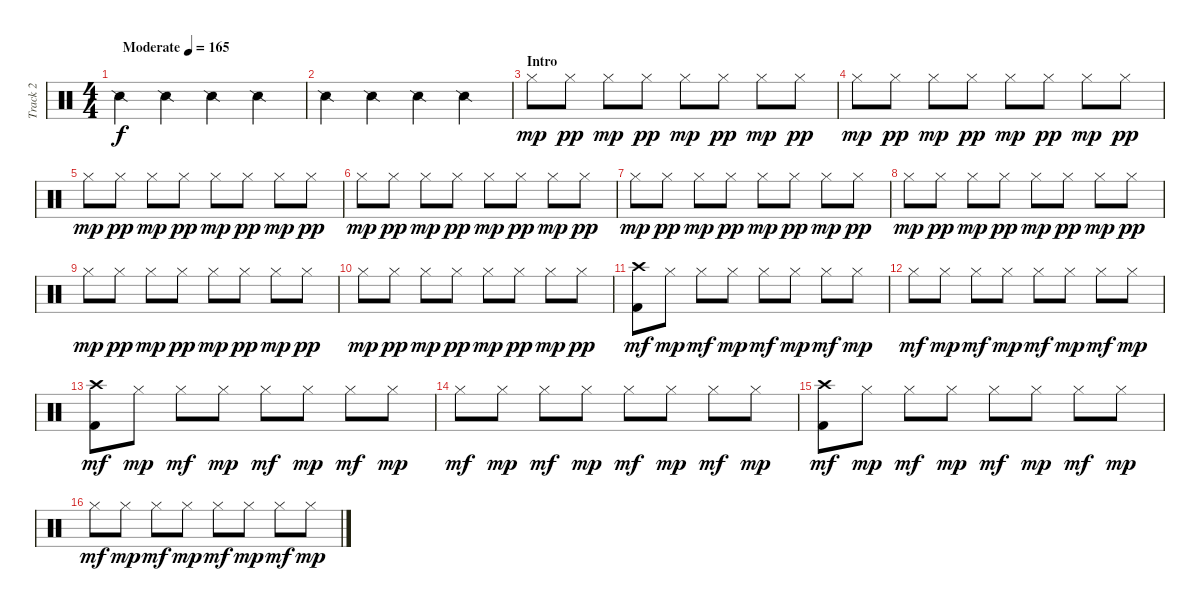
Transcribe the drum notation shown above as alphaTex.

\track ("Track 2" "Track 2") {instrument percussion}
\staff {score}
\articulation defaults
\ts (4 4)
\tempo (165 "Moderate")
\clef neutral
\ks c "Snare (side stick) 2".4{dy f} "Snare (side stick) 2".4 "Snare (side stick) 2".4 "Snare (side stick) 2".4
|
"Snare (side stick) 2".4 "Snare (side stick) 2".4 "Snare (side stick) 2".4 "Snare (side stick) 2".4 |
\section ("" "Intro")
"Hi-Hat (closed)".8{dy mp} "Hi-Hat (closed)".8{dy pp} "Hi-Hat (closed)".8{dy mp} "Hi-Hat (closed)".8{dy pp} "Hi-Hat (closed)".8{dy mp} "Hi-Hat (closed)".8{dy pp} "Hi-Hat (closed)".8{dy mp} "Hi-Hat (closed)".8{dy pp} |
"Hi-Hat (closed)".8{dy mp} "Hi-Hat (closed)".8{dy pp} "Hi-Hat (closed)".8{dy mp} "Hi-Hat (closed)".8{dy pp} "Hi-Hat (closed)".8{dy mp} "Hi-Hat (closed)".8{dy pp} "Hi-Hat (closed)".8{dy mp} "Hi-Hat (closed)".8{dy pp} |
"Hi-Hat (closed)".8{dy mp} "Hi-Hat (closed)".8{dy pp} "Hi-Hat (closed)".8{dy mp} "Hi-Hat (closed)".8{dy pp} "Hi-Hat (closed)".8{dy mp} "Hi-Hat (closed)".8{dy pp} "Hi-Hat (closed)".8{dy mp} "Hi-Hat (closed)".8{dy pp} |
"Hi-Hat (closed)".8{dy mp} "Hi-Hat (closed)".8{dy pp} "Hi-Hat (closed)".8{dy mp} "Hi-Hat (closed)".8{dy pp} "Hi-Hat (closed)".8{dy mp} "Hi-Hat (closed)".8{dy pp} "Hi-Hat (closed)".8{dy mp} "Hi-Hat (closed)".8{dy pp} |
"Hi-Hat (closed)".8{dy mp} "Hi-Hat (closed)".8{dy pp} "Hi-Hat (closed)".8{dy mp} "Hi-Hat (closed)".8{dy pp} "Hi-Hat (closed)".8{dy mp} "Hi-Hat (closed)".8{dy pp} "Hi-Hat (closed)".8{dy mp} "Hi-Hat (closed)".8{dy pp} |
"Hi-Hat (closed)".8{dy mp} "Hi-Hat (closed)".8{dy pp} "Hi-Hat (closed)".8{dy mp} "Hi-Hat (closed)".8{dy pp} "Hi-Hat (closed)".8{dy mp} "Hi-Hat (closed)".8{dy pp} "Hi-Hat (closed)".8{dy mp} "Hi-Hat (closed)".8{dy pp} |
"Hi-Hat (closed)".8{dy mp} "Hi-Hat (closed)".8{dy pp} "Hi-Hat (closed)".8{dy mp} "Hi-Hat (closed)".8{dy pp} "Hi-Hat (closed)".8{dy mp} "Hi-Hat (closed)".8{dy pp} "Hi-Hat (closed)".8{dy mp} "Hi-Hat (closed)".8{dy pp} |
"Hi-Hat (closed)".8{dy mp} "Hi-Hat (closed)".8{dy pp} "Hi-Hat (closed)".8{dy mp} "Hi-Hat (closed)".8{dy pp} "Hi-Hat (closed)".8{dy mp} "Hi-Hat (closed)".8{dy pp} "Hi-Hat (closed)".8{dy mp} "Hi-Hat (closed)".8{dy pp} |
("Crash high (hit)" "Kick (hit) 2").8{dy mf} "Hi-Hat (closed)".8{dy mp} "Hi-Hat (closed)".8{dy mf} "Hi-Hat (closed)".8{dy mp} "Hi-Hat (closed)".8{dy mf} "Hi-Hat (closed)".8{dy mp} "Hi-Hat (closed)".8{dy mf} "Hi-Hat (closed)".8{dy mp} |
"Hi-Hat (closed)".8{dy mf} "Hi-Hat (closed)".8{dy mp} "Hi-Hat (closed)".8{dy mf} "Hi-Hat (closed)".8{dy mp} "Hi-Hat (closed)".8{dy mf} "Hi-Hat (closed)".8{dy mp} "Hi-Hat (closed)".8{dy mf} "Hi-Hat (closed)".8{dy mp} |
("Crash high (hit)" "Kick (hit) 2").8{dy mf} "Hi-Hat (closed)".8{dy mp} "Hi-Hat (closed)".8{dy mf} "Hi-Hat (closed)".8{dy mp} "Hi-Hat (closed)".8{dy mf} "Hi-Hat (closed)".8{dy mp} "Hi-Hat (closed)".8{dy mf} "Hi-Hat (closed)".8{dy mp} |
"Hi-Hat (closed)".8{dy mf} "Hi-Hat (closed)".8{dy mp} "Hi-Hat (closed)".8{dy mf} "Hi-Hat (closed)".8{dy mp} "Hi-Hat (closed)".8{dy mf} "Hi-Hat (closed)".8{dy mp} "Hi-Hat (closed)".8{dy mf} "Hi-Hat (closed)".8{dy mp} |
("Crash high (hit)" "Kick (hit) 2").8{dy mf} "Hi-Hat (closed)".8{dy mp} "Hi-Hat (closed)".8{dy mf} "Hi-Hat (closed)".8{dy mp} "Hi-Hat (closed)".8{dy mf} "Hi-Hat (closed)".8{dy mp} "Hi-Hat (closed)".8{dy mf} "Hi-Hat (closed)".8{dy mp} |
"Hi-Hat (closed)".8{dy mf} "Hi-Hat (closed)".8{dy mp} "Hi-Hat (closed)".8{dy mf} "Hi-Hat (closed)".8{dy mp} "Hi-Hat (closed)".8{dy mf} "Hi-Hat (closed)".8{dy mp} "Hi-Hat (closed)".8{dy mf} "Hi-Hat (closed)".8{dy mp}
